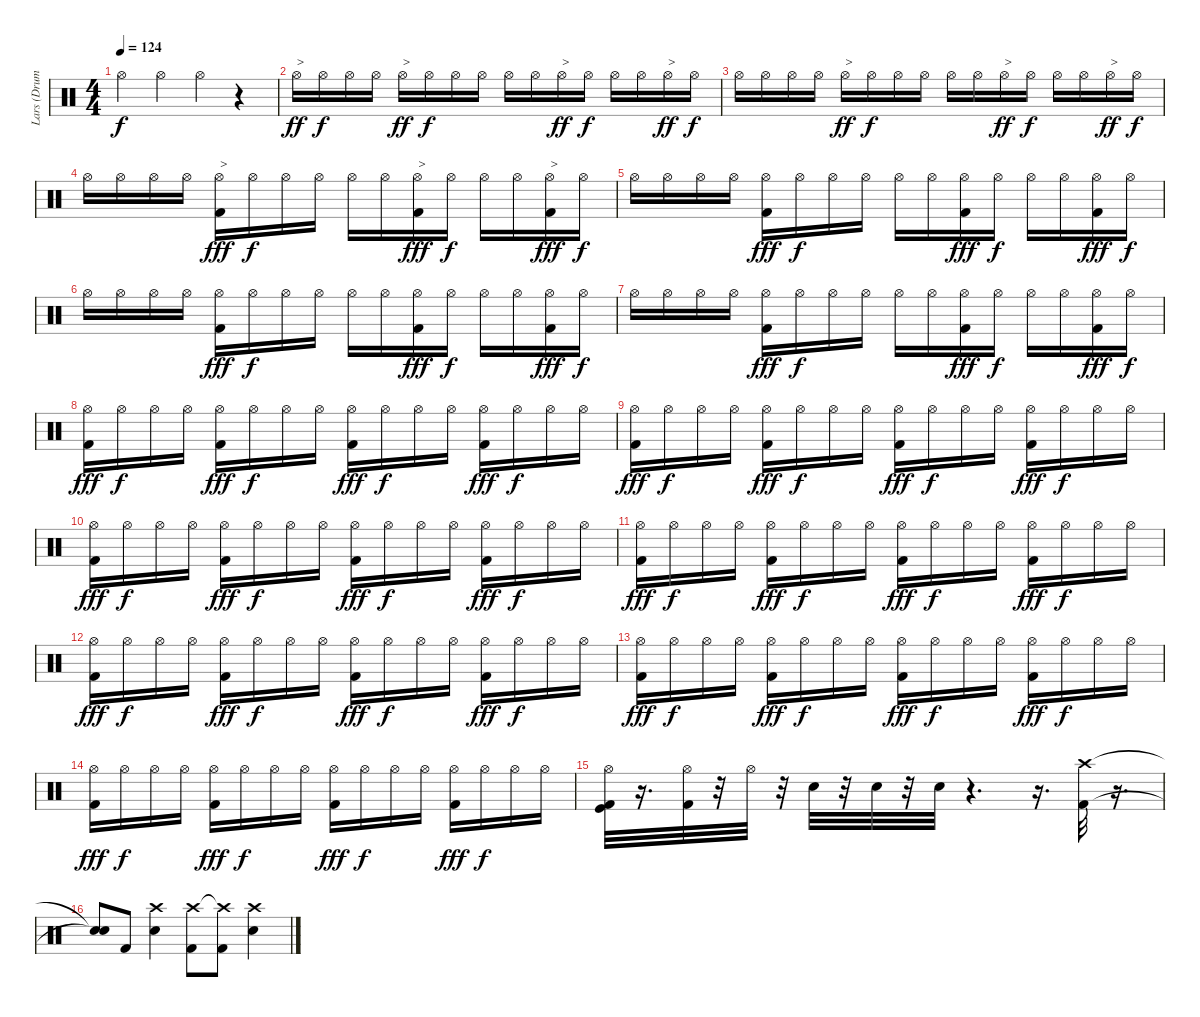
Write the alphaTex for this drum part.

\track ("Lars (Drums)" "Lars (Drum") {instrument percussion}
\staff {score}
\articulation defaults
\ts (4 4)
\tempo 124
\clef neutral
\ks c "Hi-Hat (open)".4{dy f} "Hi-Hat (open)".4 "Hi-Hat (open)".4
r.4 |
"Hi-Hat (open)".16{txt ">" dy ff} "Hi-Hat (open)".16{dy f} "Hi-Hat (open)".16 "Hi-Hat (open)".16 "Hi-Hat (open)".16{txt ">" dy ff} "Hi-Hat (open)".16{dy f} "Hi-Hat (open)".16 "Hi-Hat (open)".16 "Hi-Hat (open)".16 "Hi-Hat (open)".16 "Hi-Hat (open)".16{txt ">" dy ff} "Hi-Hat (open)".16{dy f} "Hi-Hat (open)".16 "Hi-Hat (open)".16 "Hi-Hat (open)".16{txt ">" dy ff} "Hi-Hat (open)".16{dy f} |
"Hi-Hat (open)".16 "Hi-Hat (open)".16 "Hi-Hat (open)".16 "Hi-Hat (open)".16 "Hi-Hat (open)".16{txt ">" dy ff} "Hi-Hat (open)".16{dy f} "Hi-Hat (open)".16 "Hi-Hat (open)".16 "Hi-Hat (open)".16 "Hi-Hat (open)".16 "Hi-Hat (open)".16{txt ">" dy ff} "Hi-Hat (open)".16{dy f} "Hi-Hat (open)".16 "Hi-Hat (open)".16 "Hi-Hat (open)".16{txt ">" dy ff} "Hi-Hat (open)".16{dy f} |
"Hi-Hat (open)".16 "Hi-Hat (open)".16 "Hi-Hat (open)".16 "Hi-Hat (open)".16 ("Hi-Hat (open)" "Kick (hit) 2").16{txt ">" dy fff} "Hi-Hat (open)".16{dy f} "Hi-Hat (open)".16 "Hi-Hat (open)".16 "Hi-Hat (open)".16 "Hi-Hat (open)".16 ("Hi-Hat (open)" "Kick (hit) 2").16{txt ">" dy fff} "Hi-Hat (open)".16{dy f} "Hi-Hat (open)".16 "Hi-Hat (open)".16 ("Hi-Hat (open)" "Kick (hit) 2").16{txt ">" dy fff} "Hi-Hat (open)".16{dy f} |
"Hi-Hat (open)".16 "Hi-Hat (open)".16 "Hi-Hat (open)".16 "Hi-Hat (open)".16 ("Hi-Hat (open)" "Kick (hit) 2").16{dy fff} "Hi-Hat (open)".16{dy f} "Hi-Hat (open)".16 "Hi-Hat (open)".16 "Hi-Hat (open)".16 "Hi-Hat (open)".16 ("Hi-Hat (open)" "Kick (hit) 2").16{dy fff} "Hi-Hat (open)".16{dy f} "Hi-Hat (open)".16 "Hi-Hat (open)".16 ("Hi-Hat (open)" "Kick (hit) 2").16{dy fff} "Hi-Hat (open)".16{dy f} |
"Hi-Hat (open)".16 "Hi-Hat (open)".16 "Hi-Hat (open)".16 "Hi-Hat (open)".16 ("Hi-Hat (open)" "Kick (hit) 2").16{dy fff} "Hi-Hat (open)".16{dy f} "Hi-Hat (open)".16 "Hi-Hat (open)".16 "Hi-Hat (open)".16 "Hi-Hat (open)".16 ("Hi-Hat (open)" "Kick (hit) 2").16{dy fff} "Hi-Hat (open)".16{dy f} "Hi-Hat (open)".16 "Hi-Hat (open)".16 ("Hi-Hat (open)" "Kick (hit) 2").16{dy fff} "Hi-Hat (open)".16{dy f} |
"Hi-Hat (open)".16 "Hi-Hat (open)".16 "Hi-Hat (open)".16 "Hi-Hat (open)".16 ("Hi-Hat (open)" "Kick (hit) 2").16{dy fff} "Hi-Hat (open)".16{dy f} "Hi-Hat (open)".16 "Hi-Hat (open)".16 "Hi-Hat (open)".16 "Hi-Hat (open)".16 ("Hi-Hat (open)" "Kick (hit) 2").16{dy fff} "Hi-Hat (open)".16{dy f} "Hi-Hat (open)".16 "Hi-Hat (open)".16 ("Hi-Hat (open)" "Kick (hit) 2").16{dy fff} "Hi-Hat (open)".16{dy f} |
("Hi-Hat (open)" "Kick (hit) 2").16{dy fff} "Hi-Hat (open)".16{dy f} "Hi-Hat (open)".16 "Hi-Hat (open)".16 ("Hi-Hat (open)" "Kick (hit) 2").16{dy fff} "Hi-Hat (open)".16{dy f} "Hi-Hat (open)".16 "Hi-Hat (open)".16 ("Hi-Hat (open)" "Kick (hit) 2").16{dy fff} "Hi-Hat (open)".16{dy f} "Hi-Hat (open)".16 "Hi-Hat (open)".16 ("Hi-Hat (open)" "Kick (hit) 2").16{dy fff} "Hi-Hat (open)".16{dy f} "Hi-Hat (open)".16 "Hi-Hat (open)".16 |
("Hi-Hat (open)" "Kick (hit) 2").16{dy fff} "Hi-Hat (open)".16{dy f} "Hi-Hat (open)".16 "Hi-Hat (open)".16 ("Hi-Hat (open)" "Kick (hit) 2").16{dy fff} "Hi-Hat (open)".16{dy f} "Hi-Hat (open)".16 "Hi-Hat (open)".16 ("Hi-Hat (open)" "Kick (hit) 2").16{dy fff} "Hi-Hat (open)".16{dy f} "Hi-Hat (open)".16 "Hi-Hat (open)".16 ("Hi-Hat (open)" "Kick (hit) 2").16{dy fff} "Hi-Hat (open)".16{dy f} "Hi-Hat (open)".16 "Hi-Hat (open)".16 |
("Hi-Hat (open)" "Kick (hit) 2").16{dy fff} "Hi-Hat (open)".16{dy f} "Hi-Hat (open)".16 "Hi-Hat (open)".16 ("Hi-Hat (open)" "Kick (hit) 2").16{dy fff} "Hi-Hat (open)".16{dy f} "Hi-Hat (open)".16 "Hi-Hat (open)".16 ("Hi-Hat (open)" "Kick (hit) 2").16{dy fff} "Hi-Hat (open)".16{dy f} "Hi-Hat (open)".16 "Hi-Hat (open)".16 ("Hi-Hat (open)" "Kick (hit) 2").16{dy fff} "Hi-Hat (open)".16{dy f} "Hi-Hat (open)".16 "Hi-Hat (open)".16 |
("Hi-Hat (open)" "Kick (hit) 2").16{dy fff} "Hi-Hat (open)".16{dy f} "Hi-Hat (open)".16 "Hi-Hat (open)".16 ("Hi-Hat (open)" "Kick (hit) 2").16{dy fff} "Hi-Hat (open)".16{dy f} "Hi-Hat (open)".16 "Hi-Hat (open)".16 ("Hi-Hat (open)" "Kick (hit) 2").16{dy fff} "Hi-Hat (open)".16{dy f} "Hi-Hat (open)".16 "Hi-Hat (open)".16 ("Hi-Hat (open)" "Kick (hit) 2").16{dy fff} "Hi-Hat (open)".16{dy f} "Hi-Hat (open)".16 "Hi-Hat (open)".16 |
("Hi-Hat (open)" "Kick (hit) 2").16{dy fff} "Hi-Hat (open)".16{dy f} "Hi-Hat (open)".16 "Hi-Hat (open)".16 ("Hi-Hat (open)" "Kick (hit) 2").16{dy fff} "Hi-Hat (open)".16{dy f} "Hi-Hat (open)".16 "Hi-Hat (open)".16 ("Hi-Hat (open)" "Kick (hit) 2").16{dy fff} "Hi-Hat (open)".16{dy f} "Hi-Hat (open)".16 "Hi-Hat (open)".16 ("Hi-Hat (open)" "Kick (hit) 2").16{dy fff} "Hi-Hat (open)".16{dy f} "Hi-Hat (open)".16 "Hi-Hat (open)".16 |
("Hi-Hat (open)" "Kick (hit) 2").16{dy fff} "Hi-Hat (open)".16{dy f} "Hi-Hat (open)".16 "Hi-Hat (open)".16 ("Hi-Hat (open)" "Kick (hit) 2").16{dy fff} "Hi-Hat (open)".16{dy f} "Hi-Hat (open)".16 "Hi-Hat (open)".16 ("Hi-Hat (open)" "Kick (hit) 2").16{dy fff} "Hi-Hat (open)".16{dy f} "Hi-Hat (open)".16 "Hi-Hat (open)".16 ("Hi-Hat (open)" "Kick (hit) 2").16{dy fff} "Hi-Hat (open)".16{dy f} "Hi-Hat (open)".16 "Hi-Hat (open)".16 |
("Hi-Hat (open)" "Kick (hit) 2").16{dy fff} "Hi-Hat (open)".16{dy f} "Hi-Hat (open)".16 "Hi-Hat (open)".16 ("Hi-Hat (open)" "Kick (hit) 2").16{dy fff} "Hi-Hat (open)".16{dy f} "Hi-Hat (open)".16 "Hi-Hat (open)".16 ("Hi-Hat (open)" "Kick (hit) 2").16{dy fff} "Hi-Hat (open)".16{dy f} "Hi-Hat (open)".16 "Hi-Hat (open)".16 ("Hi-Hat (open)" "Kick (hit) 2").16{dy fff} "Hi-Hat (open)".16{dy f} "Hi-Hat (open)".16 "Hi-Hat (open)".16 |
("Hi-Hat (open)" "Kick (hit) 2" "Kick (hit)").32 r.16{d} ("Hi-Hat (open)" "Kick (hit) 2").32 r.32 "Hi-Hat (open)".32 r.32 "Electric Snare (hit)".32 r.32 "Electric Snare (hit)".32 r.32 "Electric Snare (hit)".32 r.4{d} r.16{d} ("Kick (hit) 2" "Crash high (hit)").32 r.16{d} |
("Snare (hit)"{t} "Snare (hit)"{t}).8 "Kick (hit) 2".8 ("Crash high (hit)" "Snare (hit) 2").4 ("Crash high (hit)" "Kick (hit) 2").8 ("Crash high (hit)"{t} "Kick (hit) 2").8 ("Crash high (hit)" "Snare (hit) 2").4
